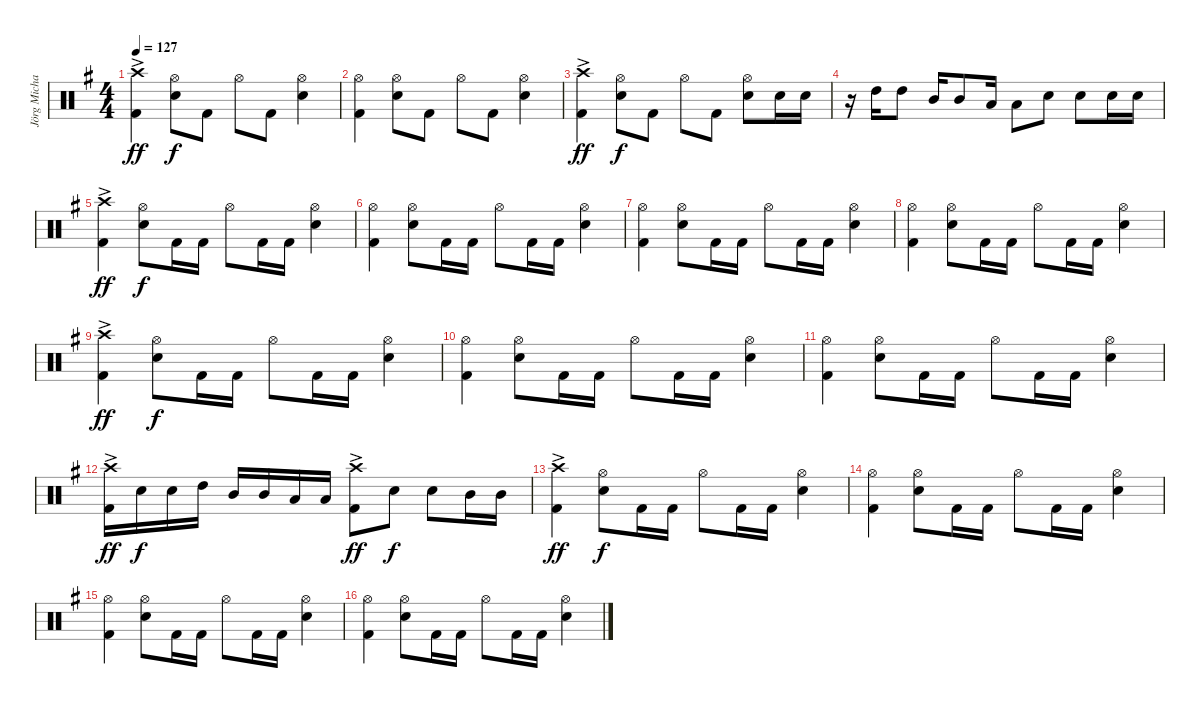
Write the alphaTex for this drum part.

\track ("Jörg Michael" "Jörg Micha") {instrument percussion}
\staff {score}
\articulation defaults
\ts (4 4)
\tempo 127
\clef neutral
\ks g
("Crash high (hit)"{ac} "Kick (hit) 2"{ac}).4{dy ff} ("Hi-Hat (open)" "Electric Snare (hit)").8{dy f} "Kick (hit) 2".8 "Hi-Hat (open)".8 "Kick (hit) 2".8 ("Electric Snare (hit)" "Hi-Hat (open)").4 |
("Hi-Hat (open)" "Kick (hit) 2").4 ("Hi-Hat (open)" "Electric Snare (hit)").8 "Kick (hit) 2".8 "Hi-Hat (open)".8 "Kick (hit) 2".8 ("Electric Snare (hit)" "Hi-Hat (open)").4 |
("Crash high (hit)"{ac} "Kick (hit) 2"{ac}).4{dy ff} ("Hi-Hat (open)" "Electric Snare (hit)").8{dy f} "Kick (hit) 2".8 "Hi-Hat (open)".8 "Kick (hit) 2".8 ("Electric Snare (hit)" "Hi-Hat (open)").8 "Electric Snare (hit)".16 "Electric Snare (hit)".16 |
r.16 "High Tom (hit)".16 "High Tom (hit)".8 "Mid Tom (hit)".16 "Mid Tom (hit)".8 "Low Tom (hit)".16 "Low Tom (hit)".8 "Electric Snare (hit)".8 "Electric Snare (hit)".8 "Electric Snare (hit)".16 "Electric Snare (hit)".16 |
("Crash high (hit)"{ac} "Kick (hit) 2"{ac}).4{dy ff} ("Hi-Hat (open)" "Electric Snare (hit)").8{dy f} "Kick (hit) 2".16 "Kick (hit) 2".16 "Hi-Hat (open)".8 "Kick (hit) 2".16 "Kick (hit) 2".16 ("Hi-Hat (open)" "Electric Snare (hit)").4 |
("Hi-Hat (open)" "Kick (hit) 2").4 ("Hi-Hat (open)" "Electric Snare (hit)").8 "Kick (hit) 2".16 "Kick (hit) 2".16 "Hi-Hat (open)".8 "Kick (hit) 2".16 "Kick (hit) 2".16 ("Hi-Hat (open)" "Electric Snare (hit)").4 |
("Hi-Hat (open)" "Kick (hit) 2").4 ("Hi-Hat (open)" "Electric Snare (hit)").8 "Kick (hit) 2".16 "Kick (hit) 2".16 "Hi-Hat (open)".8 "Kick (hit) 2".16 "Kick (hit) 2".16 ("Hi-Hat (open)" "Electric Snare (hit)").4 |
("Hi-Hat (open)" "Kick (hit) 2").4 ("Hi-Hat (open)" "Electric Snare (hit)").8 "Kick (hit) 2".16 "Kick (hit) 2".16 "Hi-Hat (open)".8 "Kick (hit) 2".16 "Kick (hit) 2".16 ("Hi-Hat (open)" "Electric Snare (hit)").4 |
("Crash high (hit)"{ac} "Kick (hit) 2"{ac}).4{dy ff} ("Hi-Hat (open)" "Electric Snare (hit)").8{dy f} "Kick (hit) 2".16 "Kick (hit) 2".16 "Hi-Hat (open)".8 "Kick (hit) 2".16 "Kick (hit) 2".16 ("Hi-Hat (open)" "Electric Snare (hit)").4 |
("Hi-Hat (open)" "Kick (hit) 2").4 ("Hi-Hat (open)" "Electric Snare (hit)").8 "Kick (hit) 2".16 "Kick (hit) 2".16 "Hi-Hat (open)".8 "Kick (hit) 2".16 "Kick (hit) 2".16 ("Hi-Hat (open)" "Electric Snare (hit)").4 |
("Hi-Hat (open)" "Kick (hit) 2").4 ("Hi-Hat (open)" "Electric Snare (hit)").8 "Kick (hit) 2".16 "Kick (hit) 2".16 "Hi-Hat (open)".8 "Kick (hit) 2".16 "Kick (hit) 2".16 ("Hi-Hat (open)" "Electric Snare (hit)").4 |
("Crash high (hit)"{ac} "Kick (hit) 2"{ac}).16{dy ff} "Electric Snare (hit)".16{dy f} "Electric Snare (hit)".16 "High Tom (hit)".16 "Mid Tom (hit)".16 "Mid Tom (hit)".16 "Low Tom (hit)".16 "Low Tom (hit)".16 ("Crash high (hit)"{ac} "Kick (hit) 2"{ac}).8{dy ff} "Electric Snare (hit)".8{dy f} "Electric Snare (hit)".8 "Mid Tom (hit)".16 "Mid Tom (hit)".16 |
("Crash high (hit)"{ac} "Kick (hit) 2"{ac}).4{dy ff} ("Hi-Hat (open)" "Electric Snare (hit)").8{dy f} "Kick (hit) 2".16 "Kick (hit) 2".16 "Hi-Hat (open)".8 "Kick (hit) 2".16 "Kick (hit) 2".16 ("Hi-Hat (open)" "Electric Snare (hit)").4 |
("Hi-Hat (open)" "Kick (hit) 2").4 ("Hi-Hat (open)" "Electric Snare (hit)").8 "Kick (hit) 2".16 "Kick (hit) 2".16 "Hi-Hat (open)".8 "Kick (hit) 2".16 "Kick (hit) 2".16 ("Hi-Hat (open)" "Electric Snare (hit)").4 |
("Hi-Hat (open)" "Kick (hit) 2").4 ("Hi-Hat (open)" "Electric Snare (hit)").8 "Kick (hit) 2".16 "Kick (hit) 2".16 "Hi-Hat (open)".8 "Kick (hit) 2".16 "Kick (hit) 2".16 ("Hi-Hat (open)" "Electric Snare (hit)").4 |
("Hi-Hat (open)" "Kick (hit) 2").4 ("Hi-Hat (open)" "Electric Snare (hit)").8 "Kick (hit) 2".16 "Kick (hit) 2".16 "Hi-Hat (open)".8 "Kick (hit) 2".16 "Kick (hit) 2".16 ("Hi-Hat (open)" "Electric Snare (hit)").4
